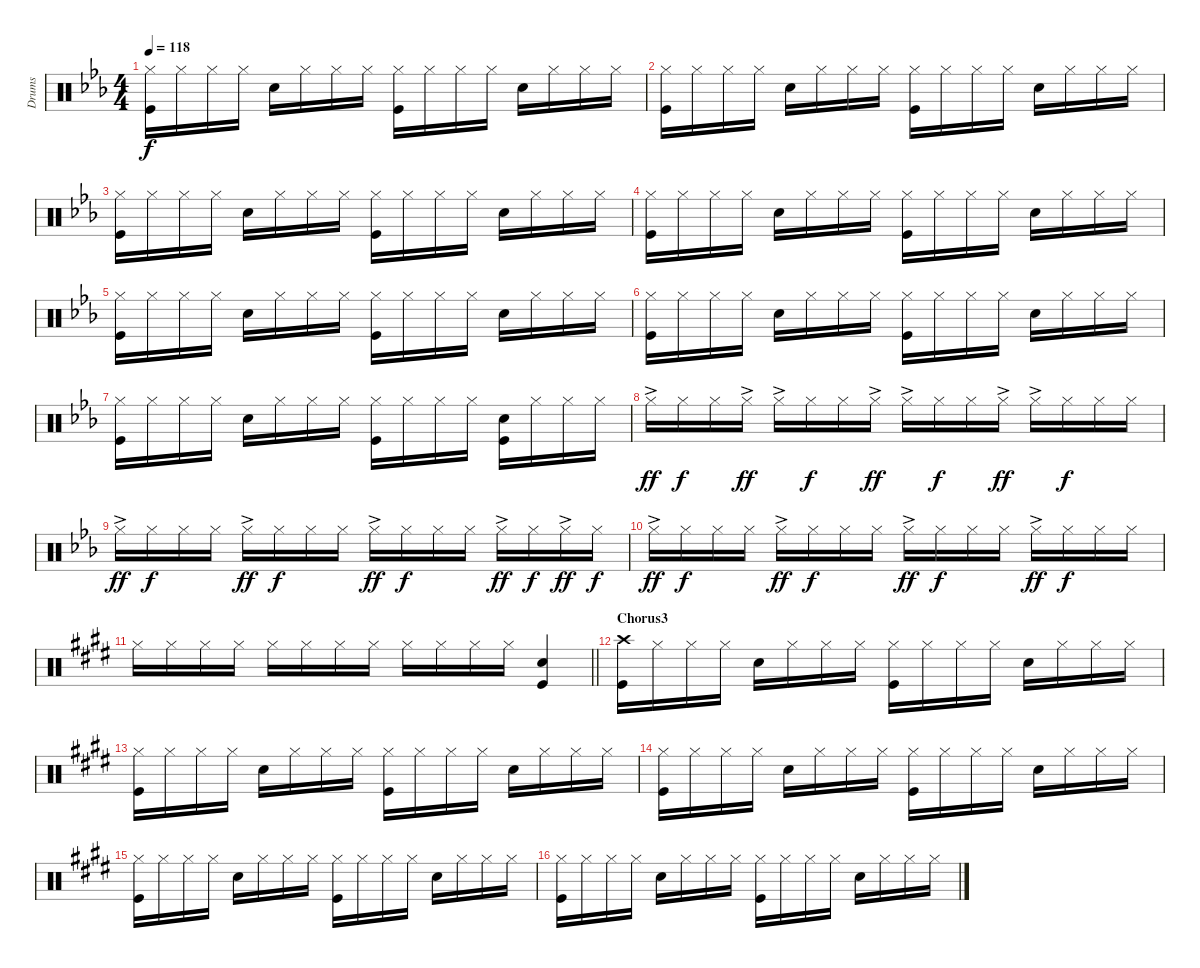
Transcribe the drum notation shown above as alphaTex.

\track ("Drums" "Drums") {instrument percussion}
\staff {score}
\articulation defaults
\ts (4 4)
\tempo 118
\clef neutral
\ks eb
("Kick (hit)" "Hi-Hat (closed)").16{dy f} "Hi-Hat (closed)".16 "Hi-Hat (closed)".16 "Hi-Hat (closed)".16 "Snare (hit) 2".16 "Hi-Hat (closed)".16 "Hi-Hat (closed)".16 "Hi-Hat (closed)".16 ("Hi-Hat (closed)" "Kick (hit)").16 "Hi-Hat (closed)".16 "Hi-Hat (closed)".16 "Hi-Hat (closed)".16 "Snare (hit) 2".16 "Hi-Hat (closed)".16 "Hi-Hat (closed)".16 "Hi-Hat (closed)".16 |
("Kick (hit)" "Hi-Hat (closed)").16 "Hi-Hat (closed)".16 "Hi-Hat (closed)".16 "Hi-Hat (closed)".16 "Snare (hit) 2".16 "Hi-Hat (closed)".16 "Hi-Hat (closed)".16 "Hi-Hat (closed)".16 ("Hi-Hat (closed)" "Kick (hit)").16 "Hi-Hat (closed)".16 "Hi-Hat (closed)".16 "Hi-Hat (closed)".16 "Snare (hit) 2".16 "Hi-Hat (closed)".16 "Hi-Hat (closed)".16 "Hi-Hat (closed)".16 |
("Kick (hit)" "Hi-Hat (closed)").16 "Hi-Hat (closed)".16 "Hi-Hat (closed)".16 "Hi-Hat (closed)".16 "Snare (hit) 2".16 "Hi-Hat (closed)".16 "Hi-Hat (closed)".16 "Hi-Hat (closed)".16 ("Hi-Hat (closed)" "Kick (hit)").16 "Hi-Hat (closed)".16 "Hi-Hat (closed)".16 "Hi-Hat (closed)".16 "Snare (hit) 2".16 "Hi-Hat (closed)".16 "Hi-Hat (closed)".16 "Hi-Hat (closed)".16 |
("Kick (hit)" "Hi-Hat (closed)").16 "Hi-Hat (closed)".16 "Hi-Hat (closed)".16 "Hi-Hat (closed)".16 "Snare (hit) 2".16 "Hi-Hat (closed)".16 "Hi-Hat (closed)".16 "Hi-Hat (closed)".16 ("Hi-Hat (closed)" "Kick (hit)").16 "Hi-Hat (closed)".16 "Hi-Hat (closed)".16 "Hi-Hat (closed)".16 "Snare (hit) 2".16 "Hi-Hat (closed)".16 "Hi-Hat (closed)".16 "Hi-Hat (closed)".16 |
("Kick (hit)" "Hi-Hat (closed)").16 "Hi-Hat (closed)".16 "Hi-Hat (closed)".16 "Hi-Hat (closed)".16 "Snare (hit) 2".16 "Hi-Hat (closed)".16 "Hi-Hat (closed)".16 "Hi-Hat (closed)".16 ("Hi-Hat (closed)" "Kick (hit)").16 "Hi-Hat (closed)".16 "Hi-Hat (closed)".16 "Hi-Hat (closed)".16 "Snare (hit) 2".16 "Hi-Hat (closed)".16 "Hi-Hat (closed)".16 "Hi-Hat (closed)".16 |
("Kick (hit)" "Hi-Hat (closed)").16 "Hi-Hat (closed)".16 "Hi-Hat (closed)".16 "Hi-Hat (closed)".16 "Snare (hit) 2".16 "Hi-Hat (closed)".16 "Hi-Hat (closed)".16 "Hi-Hat (closed)".16 ("Hi-Hat (closed)" "Kick (hit)").16 "Hi-Hat (closed)".16 "Hi-Hat (closed)".16 "Hi-Hat (closed)".16 "Snare (hit) 2".16 "Hi-Hat (closed)".16 "Hi-Hat (closed)".16 "Hi-Hat (closed)".16 |
("Kick (hit)" "Hi-Hat (closed)").16 "Hi-Hat (closed)".16 "Hi-Hat (closed)".16 "Hi-Hat (closed)".16 "Snare (hit) 2".16 "Hi-Hat (closed)".16 "Hi-Hat (closed)".16 "Hi-Hat (closed)".16 ("Hi-Hat (closed)" "Kick (hit)").16 "Hi-Hat (closed)".16 "Hi-Hat (closed)".16 "Hi-Hat (closed)".16 ("Snare (hit) 2" "Kick (hit)").16 "Hi-Hat (closed)".16 "Hi-Hat (closed)".16 "Hi-Hat (closed)".16 |
"Hi-Hat (closed)"{ac}.16{dy ff} "Hi-Hat (closed)".16{dy f} "Hi-Hat (closed)".16 "Hi-Hat (closed)"{ac}.16{dy ff} "Hi-Hat (closed)"{ac}.16 "Hi-Hat (closed)".16{dy f} "Hi-Hat (closed)".16 "Hi-Hat (closed)"{ac}.16{dy ff} "Hi-Hat (closed)"{ac}.16 "Hi-Hat (closed)".16{dy f} "Hi-Hat (closed)".16 "Hi-Hat (closed)"{ac}.16{dy ff} "Hi-Hat (closed)"{ac}.16 "Hi-Hat (closed)".16{dy f} "Hi-Hat (closed)".16 "Hi-Hat (closed)".16 |
"Hi-Hat (closed)"{ac}.16{dy ff} "Hi-Hat (closed)".16{dy f} "Hi-Hat (closed)".16 "Hi-Hat (closed)".16 "Hi-Hat (closed)"{ac}.16{dy ff} "Hi-Hat (closed)".16{dy f} "Hi-Hat (closed)".16 "Hi-Hat (closed)".16 "Hi-Hat (closed)"{ac}.16{dy ff} "Hi-Hat (closed)".16{dy f} "Hi-Hat (closed)".16 "Hi-Hat (closed)".16 "Hi-Hat (closed)"{ac}.16{dy ff} "Hi-Hat (closed)".16{dy f} "Hi-Hat (closed)"{ac}.16{dy ff} "Hi-Hat (closed)".16{dy f} |
"Hi-Hat (closed)"{ac}.16{dy ff} "Hi-Hat (closed)".16{dy f} "Hi-Hat (closed)".16 "Hi-Hat (closed)".16 "Hi-Hat (closed)"{ac}.16{dy ff} "Hi-Hat (closed)".16{dy f} "Hi-Hat (closed)".16 "Hi-Hat (closed)".16 "Hi-Hat (closed)"{ac}.16{dy ff} "Hi-Hat (closed)".16{dy f} "Hi-Hat (closed)".16 "Hi-Hat (closed)".16 "Hi-Hat (closed)"{ac}.16{dy ff} "Hi-Hat (closed)".16{dy f} "Hi-Hat (closed)".16 "Hi-Hat (closed)".16 |
\barLineRight lightlight
\ks e "Hi-Hat (closed)".16 "Hi-Hat (closed)".16 "Hi-Hat (closed)".16 "Hi-Hat (closed)".16 "Hi-Hat (closed)".16 "Hi-Hat (closed)".16 "Hi-Hat (closed)".16 "Hi-Hat (closed)".16 "Hi-Hat (closed)".16 "Hi-Hat (closed)".16 "Hi-Hat (closed)".16 "Hi-Hat (closed)".16
("Snare (hit) 2" "Kick (hit)").4 |
\section ("" "Chorus3")
("Crash high (hit)" "Kick (hit)").16 "Hi-Hat (closed)".16 "Hi-Hat (closed)".16 "Hi-Hat (closed)".16 "Snare (hit) 2".16 "Hi-Hat (closed)".16 "Hi-Hat (closed)".16 "Hi-Hat (closed)".16 ("Hi-Hat (closed)" "Kick (hit)").16 "Hi-Hat (closed)".16 "Hi-Hat (closed)".16 "Hi-Hat (closed)".16 "Snare (hit) 2".16 "Hi-Hat (closed)".16 "Hi-Hat (closed)".16 "Hi-Hat (closed)".16 |
("Kick (hit)" "Hi-Hat (closed)").16 "Hi-Hat (closed)".16 "Hi-Hat (closed)".16 "Hi-Hat (closed)".16 "Snare (hit) 2".16 "Hi-Hat (closed)".16 "Hi-Hat (closed)".16 "Hi-Hat (closed)".16 ("Hi-Hat (closed)" "Kick (hit)").16 "Hi-Hat (closed)".16 "Hi-Hat (closed)".16 "Hi-Hat (closed)".16 "Snare (hit) 2".16 "Hi-Hat (closed)".16 "Hi-Hat (closed)".16 "Hi-Hat (closed)".16 |
("Kick (hit)" "Hi-Hat (closed)").16 "Hi-Hat (closed)".16 "Hi-Hat (closed)".16 "Hi-Hat (closed)".16 "Snare (hit) 2".16 "Hi-Hat (closed)".16 "Hi-Hat (closed)".16 "Hi-Hat (closed)".16 ("Hi-Hat (closed)" "Kick (hit)").16 "Hi-Hat (closed)".16 "Hi-Hat (closed)".16 "Hi-Hat (closed)".16 "Snare (hit) 2".16 "Hi-Hat (closed)".16 "Hi-Hat (closed)".16 "Hi-Hat (closed)".16 |
("Kick (hit)" "Hi-Hat (closed)").16 "Hi-Hat (closed)".16 "Hi-Hat (closed)".16 "Hi-Hat (closed)".16 "Snare (hit) 2".16 "Hi-Hat (closed)".16 "Hi-Hat (closed)".16 "Hi-Hat (closed)".16 ("Hi-Hat (closed)" "Kick (hit)").16 "Hi-Hat (closed)".16 "Hi-Hat (closed)".16 "Hi-Hat (closed)".16 "Snare (hit) 2".16 "Hi-Hat (closed)".16 "Hi-Hat (closed)".16 "Hi-Hat (closed)".16 |
("Kick (hit)" "Hi-Hat (closed)").16 "Hi-Hat (closed)".16 "Hi-Hat (closed)".16 "Hi-Hat (closed)".16 "Snare (hit) 2".16 "Hi-Hat (closed)".16 "Hi-Hat (closed)".16 "Hi-Hat (closed)".16 ("Hi-Hat (closed)" "Kick (hit)").16 "Hi-Hat (closed)".16 "Hi-Hat (closed)".16 "Hi-Hat (closed)".16 "Snare (hit) 2".16 "Hi-Hat (closed)".16 "Hi-Hat (closed)".16 "Hi-Hat (closed)".16
